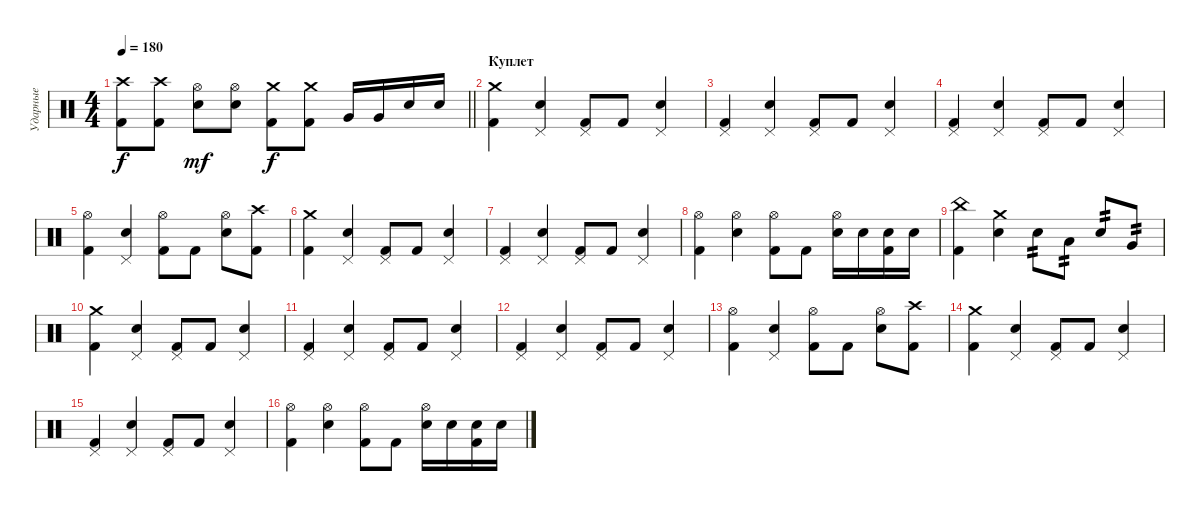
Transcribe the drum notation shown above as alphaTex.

\track ("Ударные" "Ударные") {instrument percussion}
\staff {score}
\articulation defaults
\ts (4 4)
\tempo 180
\clef neutral
\barLineRight lightlight
\ks c
("Crash high (hit)" "Kick (hit) 2").8{dy f} ("Crash high (hit)" "Kick (hit) 2").8 ("Hi-Hat (open)" "Electric Snare (hit)").8{dy mf} ("Hi-Hat (open)" "Electric Snare (hit)").8 ("Crash medium (hit)" "Kick (hit) 2").8{dy f} ("Crash medium (hit)" "Kick (hit) 2").8 "Very Low Tom (hit)".16 "Very Low Tom (hit)".16 "Electric Snare (hit)".16 "Electric Snare (hit)".16 |
\section ("" "Куплет")
("Kick (hit) 2" "Crash medium (hit)").4 ("Electric Snare (hit)" "Pedal Hi-Hat (hit)").4 ("Kick (hit) 2" "Pedal Hi-Hat (hit)").8 "Kick (hit) 2".8 ("Electric Snare (hit)" "Pedal Hi-Hat (hit)").4 |
("Kick (hit) 2" "Pedal Hi-Hat (hit)").4 ("Electric Snare (hit)" "Pedal Hi-Hat (hit)").4 ("Kick (hit) 2" "Pedal Hi-Hat (hit)").8 "Kick (hit) 2".8 ("Electric Snare (hit)" "Pedal Hi-Hat (hit)").4 |
("Kick (hit) 2" "Pedal Hi-Hat (hit)").4 ("Electric Snare (hit)" "Pedal Hi-Hat (hit)").4 ("Kick (hit) 2" "Pedal Hi-Hat (hit)").8 "Kick (hit) 2".8 ("Electric Snare (hit)" "Pedal Hi-Hat (hit)").4 |
("Kick (hit) 2" "Hi-Hat (open)").4 ("Electric Snare (hit)" "Pedal Hi-Hat (hit)").4 ("Kick (hit) 2" "Hi-Hat (open)").8 "Kick (hit) 2".8 ("Electric Snare (hit)" "Hi-Hat (open)").8 ("Kick (hit) 2" "Crash high (hit)").8 |
("Kick (hit) 2" "Crash medium (hit)").4 ("Electric Snare (hit)" "Pedal Hi-Hat (hit)").4 ("Kick (hit) 2" "Pedal Hi-Hat (hit)").8 "Kick (hit) 2".8 ("Electric Snare (hit)" "Pedal Hi-Hat (hit)").4 |
("Kick (hit) 2" "Pedal Hi-Hat (hit)").4 ("Electric Snare (hit)" "Pedal Hi-Hat (hit)").4 ("Kick (hit) 2" "Pedal Hi-Hat (hit)").8 "Kick (hit) 2".8 ("Electric Snare (hit)" "Pedal Hi-Hat (hit)").4 |
("Kick (hit) 2" "Hi-Hat (open)").4 ("Electric Snare (hit)" "Hi-Hat (open)").4 ("Kick (hit) 2" "Hi-Hat (open)").8 "Kick (hit) 2".8 ("Electric Snare (hit)" "Hi-Hat (open)").16 "Electric Snare (hit)".16 ("Electric Snare (hit)" "Kick (hit) 2").16 "Electric Snare (hit)".16 |
("Kick (hit) 2" "China (hit)").4 ("Electric Snare (hit)" "Crash medium (hit)").4 "Electric Snare (hit)".8{tp 2} "Low Tom (hit)".8{tp 2} "Electric Snare (hit)".8{tp 2} "Very Low Tom (hit)".8{tp 2} |
("Kick (hit) 2" "Crash medium (hit)").4 ("Electric Snare (hit)" "Pedal Hi-Hat (hit)").4 ("Kick (hit) 2" "Pedal Hi-Hat (hit)").8 "Kick (hit) 2".8 ("Electric Snare (hit)" "Pedal Hi-Hat (hit)").4 |
("Kick (hit) 2" "Pedal Hi-Hat (hit)").4 ("Electric Snare (hit)" "Pedal Hi-Hat (hit)").4 ("Kick (hit) 2" "Pedal Hi-Hat (hit)").8 "Kick (hit) 2".8 ("Electric Snare (hit)" "Pedal Hi-Hat (hit)").4 |
("Kick (hit) 2" "Pedal Hi-Hat (hit)").4 ("Electric Snare (hit)" "Pedal Hi-Hat (hit)").4 ("Kick (hit) 2" "Pedal Hi-Hat (hit)").8 "Kick (hit) 2".8 ("Electric Snare (hit)" "Pedal Hi-Hat (hit)").4 |
("Kick (hit) 2" "Hi-Hat (open)").4 ("Electric Snare (hit)" "Pedal Hi-Hat (hit)").4 ("Kick (hit) 2" "Hi-Hat (open)").8 "Kick (hit) 2".8 ("Electric Snare (hit)" "Hi-Hat (open)").8 ("Kick (hit) 2" "Crash high (hit)").8 |
("Kick (hit) 2" "Crash medium (hit)").4 ("Electric Snare (hit)" "Pedal Hi-Hat (hit)").4 ("Kick (hit) 2" "Pedal Hi-Hat (hit)").8 "Kick (hit) 2".8 ("Electric Snare (hit)" "Pedal Hi-Hat (hit)").4 |
("Kick (hit) 2" "Pedal Hi-Hat (hit)").4 ("Electric Snare (hit)" "Pedal Hi-Hat (hit)").4 ("Kick (hit) 2" "Pedal Hi-Hat (hit)").8 "Kick (hit) 2".8 ("Electric Snare (hit)" "Pedal Hi-Hat (hit)").4 |
("Kick (hit) 2" "Hi-Hat (open)").4 ("Electric Snare (hit)" "Hi-Hat (open)").4 ("Kick (hit) 2" "Hi-Hat (open)").8 "Kick (hit) 2".8 ("Electric Snare (hit)" "Hi-Hat (open)").16 "Electric Snare (hit)".16 ("Electric Snare (hit)" "Kick (hit) 2").16 "Electric Snare (hit)".16
